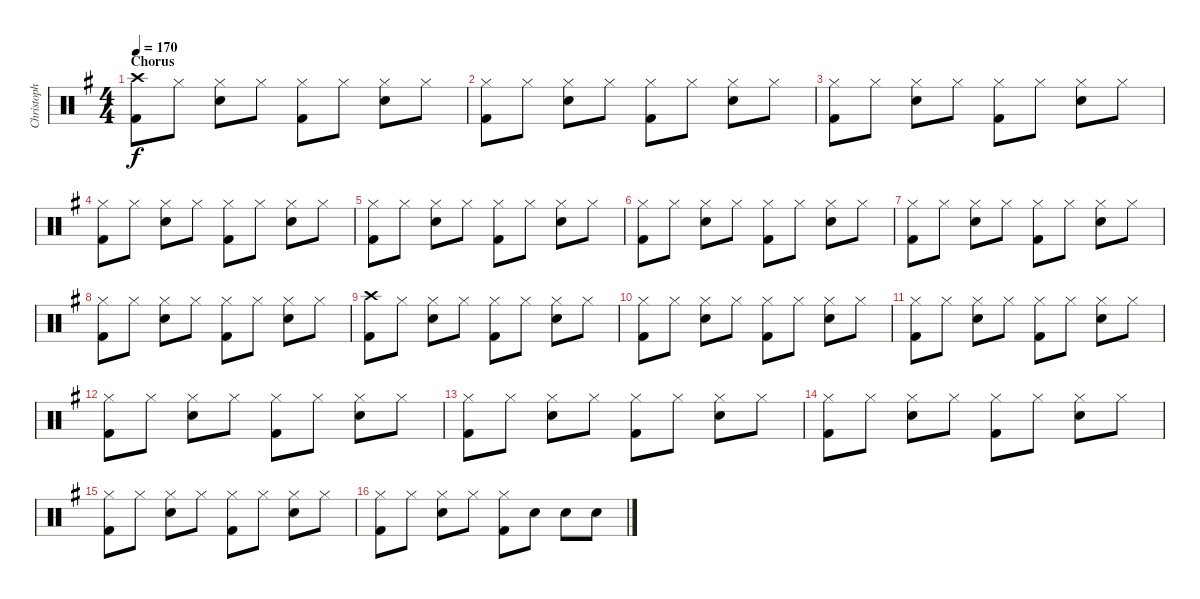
\track ("Christoph Doom Schneider - Drums" "Christoph ") {instrument percussion}
\staff {score}
\articulation defaults
\ts (4 4)
\section ("" "Chorus")
\tempo 170
\clef neutral
\ks g
("Crash high (hit)" "Kick (hit) 2").8{dy f} "Hi-Hat (closed)".8 ("Hi-Hat (closed)" "Electric Snare (hit)").8 "Hi-Hat (closed)".8 ("Hi-Hat (closed)" "Kick (hit) 2").8 "Hi-Hat (closed)".8 ("Hi-Hat (closed)" "Electric Snare (hit)").8 "Hi-Hat (closed)".8 |
("Hi-Hat (closed)" "Kick (hit) 2").8 "Hi-Hat (closed)".8 ("Hi-Hat (closed)" "Electric Snare (hit)").8 "Hi-Hat (closed)".8 ("Hi-Hat (closed)" "Kick (hit) 2").8 "Hi-Hat (closed)".8 ("Hi-Hat (closed)" "Electric Snare (hit)").8 "Hi-Hat (closed)".8 |
("Hi-Hat (closed)" "Kick (hit) 2").8 "Hi-Hat (closed)".8 ("Hi-Hat (closed)" "Electric Snare (hit)").8 "Hi-Hat (closed)".8 ("Hi-Hat (closed)" "Kick (hit) 2").8 "Hi-Hat (closed)".8 ("Hi-Hat (closed)" "Electric Snare (hit)").8 "Hi-Hat (closed)".8 |
("Hi-Hat (closed)" "Kick (hit) 2").8 "Hi-Hat (closed)".8 ("Hi-Hat (closed)" "Electric Snare (hit)").8 "Hi-Hat (closed)".8 ("Hi-Hat (closed)" "Kick (hit) 2").8 "Hi-Hat (closed)".8 ("Hi-Hat (closed)" "Electric Snare (hit)").8 "Hi-Hat (closed)".8 |
("Hi-Hat (closed)" "Kick (hit) 2").8 "Hi-Hat (closed)".8 ("Hi-Hat (closed)" "Electric Snare (hit)").8 "Hi-Hat (closed)".8 ("Hi-Hat (closed)" "Kick (hit) 2").8 "Hi-Hat (closed)".8 ("Hi-Hat (closed)" "Electric Snare (hit)").8 "Hi-Hat (closed)".8 |
("Hi-Hat (closed)" "Kick (hit) 2").8 "Hi-Hat (closed)".8 ("Hi-Hat (closed)" "Electric Snare (hit)").8 "Hi-Hat (closed)".8 ("Hi-Hat (closed)" "Kick (hit) 2").8 "Hi-Hat (closed)".8 ("Hi-Hat (closed)" "Electric Snare (hit)").8 "Hi-Hat (closed)".8 |
("Hi-Hat (closed)" "Kick (hit) 2").8 "Hi-Hat (closed)".8 ("Hi-Hat (closed)" "Electric Snare (hit)").8 "Hi-Hat (closed)".8 ("Hi-Hat (closed)" "Kick (hit) 2").8 "Hi-Hat (closed)".8 ("Hi-Hat (closed)" "Electric Snare (hit)").8 "Hi-Hat (closed)".8 |
("Hi-Hat (closed)" "Kick (hit) 2").8 "Hi-Hat (closed)".8 ("Hi-Hat (closed)" "Electric Snare (hit)").8 "Hi-Hat (closed)".8 ("Hi-Hat (closed)" "Kick (hit) 2").8 "Hi-Hat (closed)".8 ("Hi-Hat (closed)" "Electric Snare (hit)").8 "Hi-Hat (closed)".8 |
("Crash high (hit)" "Kick (hit) 2").8 "Hi-Hat (closed)".8 ("Hi-Hat (closed)" "Electric Snare (hit)").8 "Hi-Hat (closed)".8 ("Hi-Hat (closed)" "Kick (hit) 2").8 "Hi-Hat (closed)".8 ("Hi-Hat (closed)" "Electric Snare (hit)").8 "Hi-Hat (closed)".8 |
("Hi-Hat (closed)" "Kick (hit) 2").8 "Hi-Hat (closed)".8 ("Hi-Hat (closed)" "Electric Snare (hit)").8 "Hi-Hat (closed)".8 ("Hi-Hat (closed)" "Kick (hit) 2").8 "Hi-Hat (closed)".8 ("Hi-Hat (closed)" "Electric Snare (hit)").8 "Hi-Hat (closed)".8 |
("Hi-Hat (closed)" "Kick (hit) 2").8 "Hi-Hat (closed)".8 ("Hi-Hat (closed)" "Electric Snare (hit)").8 "Hi-Hat (closed)".8 ("Hi-Hat (closed)" "Kick (hit) 2").8 "Hi-Hat (closed)".8 ("Hi-Hat (closed)" "Electric Snare (hit)").8 "Hi-Hat (closed)".8 |
("Hi-Hat (closed)" "Kick (hit) 2").8 "Hi-Hat (closed)".8 ("Hi-Hat (closed)" "Electric Snare (hit)").8 "Hi-Hat (closed)".8 ("Hi-Hat (closed)" "Kick (hit) 2").8 "Hi-Hat (closed)".8 ("Hi-Hat (closed)" "Electric Snare (hit)").8 "Hi-Hat (closed)".8 |
("Hi-Hat (closed)" "Kick (hit) 2").8 "Hi-Hat (closed)".8 ("Hi-Hat (closed)" "Electric Snare (hit)").8 "Hi-Hat (closed)".8 ("Hi-Hat (closed)" "Kick (hit) 2").8 "Hi-Hat (closed)".8 ("Hi-Hat (closed)" "Electric Snare (hit)").8 "Hi-Hat (closed)".8 |
("Hi-Hat (closed)" "Kick (hit) 2").8 "Hi-Hat (closed)".8 ("Hi-Hat (closed)" "Electric Snare (hit)").8 "Hi-Hat (closed)".8 ("Hi-Hat (closed)" "Kick (hit) 2").8 "Hi-Hat (closed)".8 ("Hi-Hat (closed)" "Electric Snare (hit)").8 "Hi-Hat (closed)".8 |
("Hi-Hat (closed)" "Kick (hit) 2").8 "Hi-Hat (closed)".8 ("Hi-Hat (closed)" "Electric Snare (hit)").8 "Hi-Hat (closed)".8 ("Hi-Hat (closed)" "Kick (hit) 2").8 "Hi-Hat (closed)".8 ("Hi-Hat (closed)" "Electric Snare (hit)").8 "Hi-Hat (closed)".8 |
("Hi-Hat (closed)" "Kick (hit) 2").8 "Hi-Hat (closed)".8 ("Hi-Hat (closed)" "Electric Snare (hit)").8 "Hi-Hat (closed)".8 ("Hi-Hat (closed)" "Kick (hit) 2").8 "Electric Snare (hit)".8 "Electric Snare (hit)".8 "Electric Snare (hit)".8
